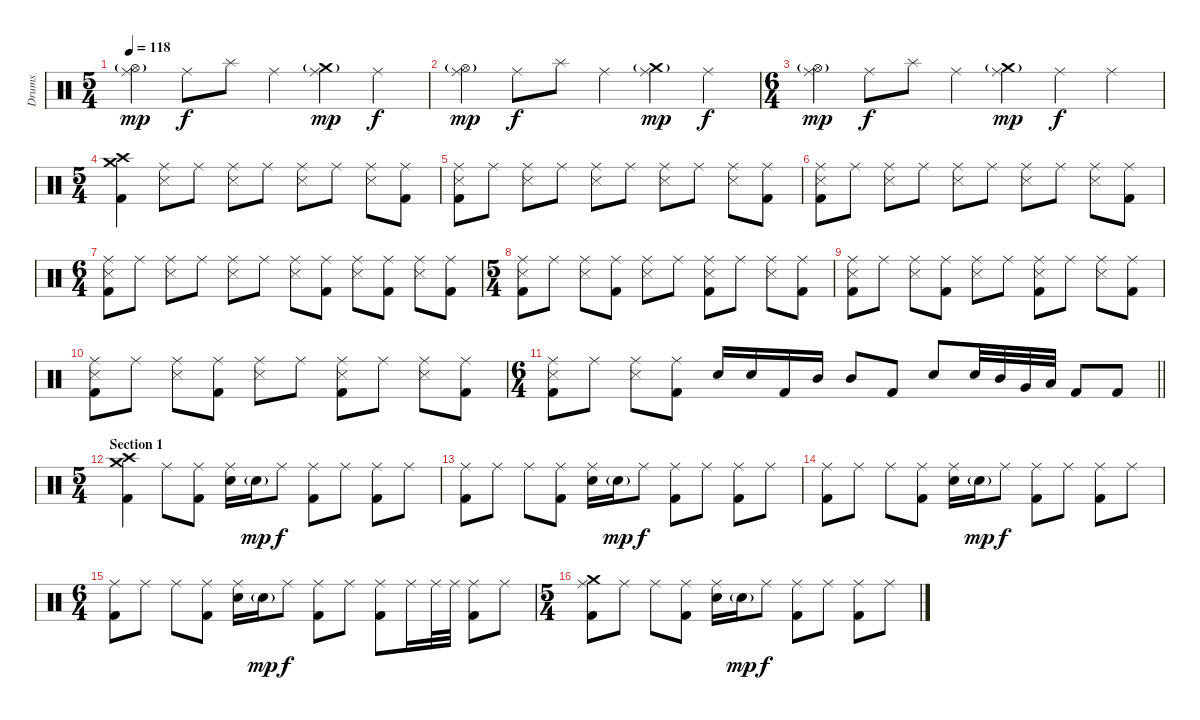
\track ("Drums" "Drums") {instrument percussion}
\staff {score}
\articulation defaults
\ts (5 4)
\tempo 118
\clef neutral
\ks c
("Ride (middle)" "Hi-Hat (open)"{g}).4{dy mp} "Ride (middle)".8{dy f} "Splash (hit)".8 "Ride (middle)".4 ("Crash medium (hit)"{g} "Ride (middle)").4{dy mp} "Ride (middle)".4{dy f} |
("Ride (middle)" "Hi-Hat (open)"{g}).4{dy mp} "Ride (middle)".8{dy f} "Splash (hit)".8 "Ride (middle)".4 ("Crash medium (hit)"{g} "Ride (middle)").4{dy mp} "Ride (middle)".4{dy f} |
\ts (6 4)
("Ride (middle)" "Hi-Hat (open)"{g}).4{dy mp} "Ride (middle)".8{dy f} "Splash (hit)".8 "Ride (middle)".4 ("Crash medium (hit)"{g} "Ride (middle)").4{dy mp} "Ride (middle)".4{dy f} "Ride (middle)".4 |
\ts (5 4)
("Crash medium (hit)" "Crash high (hit)" "Kick (hit) 2").4 ("Ride (middle)" "Snare (side stick) 3").8 "Ride (middle)".8 ("Ride (middle)" "Snare (side stick) 3").8 "Ride (middle)".8 ("Ride (middle)" "Snare (side stick) 3").8 "Ride (middle)".8 ("Ride (middle)" "Snare (side stick) 3").8 ("Ride (middle)" "Kick (hit) 2").8 |
("Ride (middle)" "Snare (side stick) 3" "Kick (hit) 2").8 "Ride (middle)".8 ("Ride (middle)" "Snare (side stick) 3").8 "Ride (middle)".8 ("Ride (middle)" "Snare (side stick) 3").8 "Ride (middle)".8 ("Ride (middle)" "Snare (side stick) 3").8 "Ride (middle)".8 ("Ride (middle)" "Snare (side stick) 3").8 ("Ride (middle)" "Kick (hit) 2").8 |
("Ride (middle)" "Snare (side stick) 3" "Kick (hit) 2").8 "Ride (middle)".8 ("Ride (middle)" "Snare (side stick) 3").8 "Ride (middle)".8 ("Ride (middle)" "Snare (side stick) 3").8 "Ride (middle)".8 ("Ride (middle)" "Snare (side stick) 3").8 "Ride (middle)".8 ("Ride (middle)" "Snare (side stick) 3").8 ("Ride (middle)" "Kick (hit) 2").8 |
\ts (6 4)
("Ride (middle)" "Snare (side stick) 3" "Kick (hit) 2").8 "Ride (middle)".8 ("Ride (middle)" "Snare (side stick) 3").8 "Ride (middle)".8 ("Ride (middle)" "Snare (side stick) 3").8 "Ride (middle)".8 ("Ride (middle)" "Snare (side stick) 3").8 ("Ride (middle)" "Kick (hit) 2").8 ("Ride (middle)" "Snare (side stick) 3").8 ("Ride (middle)" "Kick (hit) 2").8 ("Ride (middle)" "Snare (side stick) 3").8 ("Ride (middle)" "Kick (hit) 2").8 |
\ts (5 4)
("Ride (middle)" "Snare (side stick) 3" "Kick (hit) 2").8 "Ride (middle)".8 ("Ride (middle)" "Snare (side stick) 3").8 ("Ride (middle)" "Kick (hit) 2").8 ("Ride (middle)" "Snare (side stick) 3").8 "Ride (middle)".8 ("Ride (middle)" "Snare (side stick) 3" "Kick (hit) 2").8 "Ride (middle)".8 ("Ride (middle)" "Snare (side stick) 3").8 ("Ride (middle)" "Kick (hit) 2").8 |
("Ride (middle)" "Snare (side stick) 3" "Kick (hit) 2").8 "Ride (middle)".8 ("Ride (middle)" "Snare (side stick) 3").8 ("Ride (middle)" "Kick (hit) 2").8 ("Ride (middle)" "Snare (side stick) 3").8 "Ride (middle)".8 ("Ride (middle)" "Snare (side stick) 3" "Kick (hit) 2").8 "Ride (middle)".8 ("Ride (middle)" "Snare (side stick) 3").8 ("Ride (middle)" "Kick (hit) 2").8 |
("Ride (middle)" "Snare (side stick) 3" "Kick (hit) 2").8 "Ride (middle)".8 ("Ride (middle)" "Snare (side stick) 3").8 ("Ride (middle)" "Kick (hit) 2").8 ("Ride (middle)" "Snare (side stick) 3").8 "Ride (middle)".8 ("Ride (middle)" "Snare (side stick) 3" "Kick (hit) 2").8 "Ride (middle)".8 ("Ride (middle)" "Snare (side stick) 3").8 ("Ride (middle)" "Kick (hit) 2").8 |
\ts (6 4)
\barLineRight lightlight
("Ride (middle)" "Snare (side stick) 3" "Kick (hit) 2").8 "Ride (middle)".8 ("Ride (middle)" "Snare (side stick) 3").8 ("Ride (middle)" "Kick (hit) 2").8 "Electric Snare (hit)".16 "Electric Snare (hit)".16 "Kick (hit) 2".16 "Mid Tom (hit)".16 "Mid Tom (hit)".8 "Kick (hit) 2".8 "Electric Snare (hit)".8 "Electric Snare (hit)".32 "Mid Tom (hit)".32 "Very Low Tom (hit)".32 "Low Tom (hit)".32 "Kick (hit) 2".8 "Kick (hit) 2".8 |
\ts (5 4)
\section ("" "Section 1")
("Crash medium (hit)" "Crash high (hit)" "Kick (hit) 2").4 "Ride (middle)".8 ("Ride (middle)" "Kick (hit) 2").8 ("Ride (middle)" "Electric Snare (hit)").16 "Electric Snare (hit)"{g}.16{dy mp} "Ride (middle)".8{dy f} ("Ride (middle)" "Kick (hit) 2").8 "Ride (middle)".8 ("Ride (middle)" "Kick (hit) 2").8 "Ride (middle)".8 |
("Ride (middle)" "Kick (hit) 2").8 "Ride (middle)".8 "Ride (middle)".8 ("Ride (middle)" "Kick (hit) 2").8 ("Ride (middle)" "Electric Snare (hit)").16 "Electric Snare (hit)"{g}.16{dy mp} "Ride (middle)".8{dy f} ("Ride (middle)" "Kick (hit) 2").8 "Ride (middle)".8 ("Ride (middle)" "Kick (hit) 2").8 "Ride (middle)".8 |
("Ride (middle)" "Kick (hit) 2").8 "Ride (middle)".8 "Ride (middle)".8 ("Ride (middle)" "Kick (hit) 2").8 ("Ride (middle)" "Electric Snare (hit)").16 "Electric Snare (hit)"{g}.16{dy mp} "Ride (middle)".8{dy f} ("Ride (middle)" "Kick (hit) 2").8 "Ride (middle)".8 ("Ride (middle)" "Kick (hit) 2").8 "Ride (middle)".8 |
\ts (6 4)
("Ride (middle)" "Kick (hit) 2").8 "Ride (middle)".8 "Ride (middle)".8 ("Ride (middle)" "Kick (hit) 2").8 ("Ride (middle)" "Electric Snare (hit)").16 "Electric Snare (hit)"{g}.16{dy mp} "Ride (middle)".8{dy f} ("Ride (middle)" "Kick (hit) 2").8 "Ride (middle)".8 ("Ride (middle)" "Kick (hit) 2").8 "Ride (middle)".16 "Ride (middle)".32 "Ride (middle)".32 ("Ride (middle)" "Kick (hit) 2").8 "Ride (middle)".8 |
\ts (5 4)
("Crash medium (hit)" "Ride (middle)" "Kick (hit) 2").8 "Ride (middle)".8 "Ride (middle)".8 ("Ride (middle)" "Kick (hit) 2").8 ("Ride (middle)" "Electric Snare (hit)").16 "Electric Snare (hit)"{g}.16{dy mp} "Ride (middle)".8{dy f} ("Ride (middle)" "Kick (hit) 2").8 "Ride (middle)".8 ("Ride (middle)" "Kick (hit) 2").8 "Ride (middle)".8
